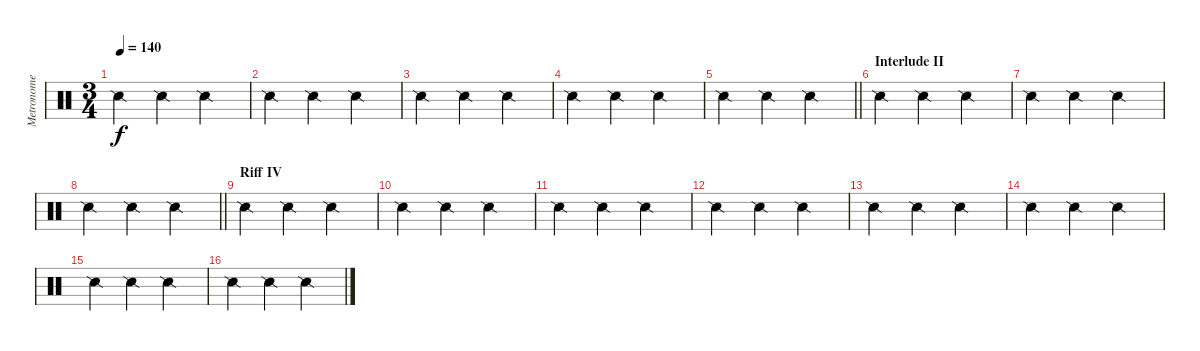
\track ("Metronome" "Metronome") {instrument percussion}
\staff {score}
\articulation defaults
\ts (3 4)
\tempo 140
\clef neutral
\ks c "Snare (side stick) 2".4{dy f} "Snare (side stick) 2".4 "Snare (side stick) 2".4
|
"Snare (side stick) 2".4 "Snare (side stick) 2".4 "Snare (side stick) 2".4 |
"Snare (side stick) 2".4 "Snare (side stick) 2".4 "Snare (side stick) 2".4 |
"Snare (side stick) 2".4 "Snare (side stick) 2".4 "Snare (side stick) 2".4 |
\barLineRight lightlight "Snare (side stick) 2".4 "Snare (side stick) 2".4 "Snare (side stick) 2".4
|
\section ("" "Interlude II")
"Snare (side stick) 2".4 "Snare (side stick) 2".4 "Snare (side stick) 2".4 |
"Snare (side stick) 2".4 "Snare (side stick) 2".4 "Snare (side stick) 2".4 |
\barLineRight lightlight "Snare (side stick) 2".4 "Snare (side stick) 2".4 "Snare (side stick) 2".4
|
\section ("" "Riff IV")
"Snare (side stick) 2".4 "Snare (side stick) 2".4 "Snare (side stick) 2".4 |
"Snare (side stick) 2".4 "Snare (side stick) 2".4 "Snare (side stick) 2".4 |
"Snare (side stick) 2".4 "Snare (side stick) 2".4 "Snare (side stick) 2".4 |
"Snare (side stick) 2".4 "Snare (side stick) 2".4 "Snare (side stick) 2".4 |
"Snare (side stick) 2".4 "Snare (side stick) 2".4 "Snare (side stick) 2".4 |
"Snare (side stick) 2".4 "Snare (side stick) 2".4 "Snare (side stick) 2".4 |
"Snare (side stick) 2".4 "Snare (side stick) 2".4 "Snare (side stick) 2".4 |
"Snare (side stick) 2".4 "Snare (side stick) 2".4 "Snare (side stick) 2".4
